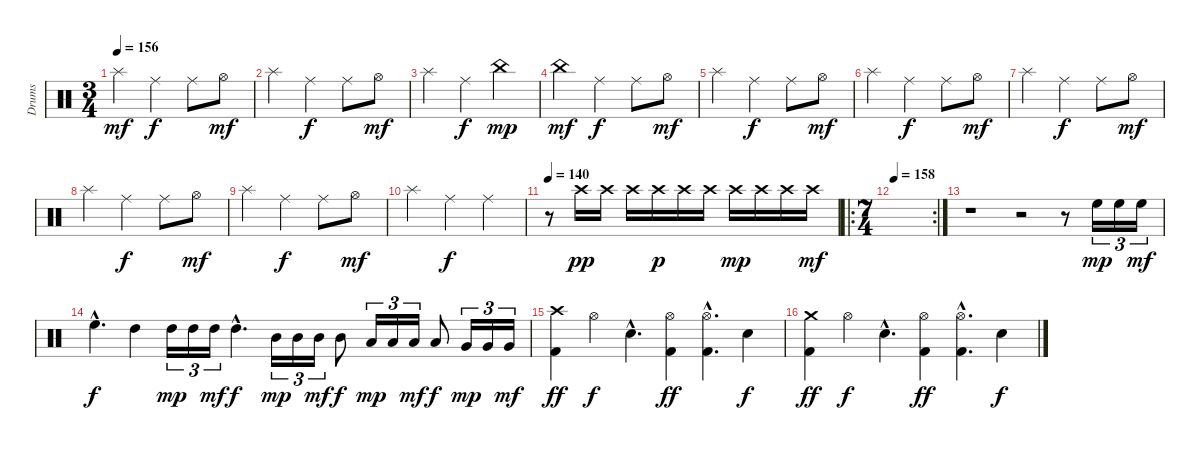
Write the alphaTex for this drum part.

\track ("Drums" "Drums") {instrument percussion}
\staff {score}
\articulation defaults
\ts (3 4)
\tempo 156
\clef neutral
\ks c "Splash (hit)".4{dy mf} "Ride (middle)".4{dy f} "Ride (middle)".8 "Hi-Hat (open)".8{dy mf}
|
"Splash (hit)".4 "Ride (middle)".4{dy f} "Ride (middle)".8 "Hi-Hat (open)".8{dy mf} |
"Splash (hit)".4 "Ride (middle)".4{dy f} "China (hit)".4{dy mp} |
"China (hit)".4{dy mf} "Ride (middle)".4{dy f} "Ride (middle)".8 "Hi-Hat (open)".8{dy mf} |
"Splash (hit)".4 "Ride (middle)".4{dy f} "Ride (middle)".8 "Hi-Hat (open)".8{dy mf} |
"Splash (hit)".4 "Ride (middle)".4{dy f} "Ride (middle)".8 "Hi-Hat (open)".8{dy mf} |
"Splash (hit)".4 "Ride (middle)".4{dy f} "Ride (middle)".8 "Hi-Hat (open)".8{dy mf} |
"Splash (hit)".4 "Ride (middle)".4{dy f} "Ride (middle)".8 "Hi-Hat (open)".8{dy mf} |
"Splash (hit)".4 "Ride (middle)".4{dy f} "Ride (middle)".8 "Hi-Hat (open)".8{dy mf} |
"Splash (hit)".4 "Ride (middle)".4{dy f} "Ride (middle)".4 |
\tempo 140
r.8 "Crash high (hit)".16{dy pp} "Crash high (hit)".16 "Crash high (hit)".16 "Crash high (hit)".16{dy p} "Crash high (hit)".16 "Crash high (hit)".16 "Crash high (hit)".16{dy mp} "Crash high (hit)".16 "Crash high (hit)".16 "Crash high (hit)".16{dy mf} |
\ro
\rc 2
\ts (7 4)
\tempo 158
|
r.1 r.2 r.8 "High Floor Tom (hit)".16{tu (3 2) dy mp} "High Floor Tom (hit)".16{tu (3 2)} "High Floor Tom (hit)".16{tu (3 2) dy mf} |
"High Floor Tom (hit)"{hac}.4{d dy f} "High Tom (hit)".4 "High Tom (hit)".16{tu (3 2) dy mp} "High Tom (hit)".16{tu (3 2)} "High Tom (hit)".16{tu (3 2) dy mf} "High Tom (hit)"{hac}.4{d dy f} "Mid Tom (hit)".16{tu (3 2) dy mp} "Mid Tom (hit)".16{tu (3 2)} "Mid Tom (hit)".16{tu (3 2) dy mf} "Mid Tom (hit)".8{dy f} "Low Tom (hit)".16{tu (3 2) dy mp} "Low Tom (hit)".16{tu (3 2)} "Low Tom (hit)".16{tu (3 2) dy mf} "Low Tom (hit)".8{dy f} "Very Low Tom (hit)".16{tu (3 2) dy mp} "Very Low Tom (hit)".16{tu (3 2)} "Very Low Tom (hit)".16{tu (3 2) dy mf} |
("Crash high (hit)" "Kick (hit) 2").4{dy ff} "Hi-Hat (open)".4{dy f} "Electric Snare (hit)"{hac}.4{d} ("Hi-Hat (open)" "Kick (hit) 2").4{dy ff} ("Hi-Hat (open)"{hac} "Kick (hit) 2"{hac}).4{d} "Electric Snare (hit)".4{dy f} |
("Crash medium (hit)" "Kick (hit) 2").4{dy ff} "Hi-Hat (open)".4{dy f} "Electric Snare (hit)"{hac}.4{d} ("Hi-Hat (open)" "Kick (hit) 2").4{dy ff} ("Hi-Hat (open)"{hac} "Kick (hit) 2"{hac}).4{d} "Electric Snare (hit)".4{dy f}
